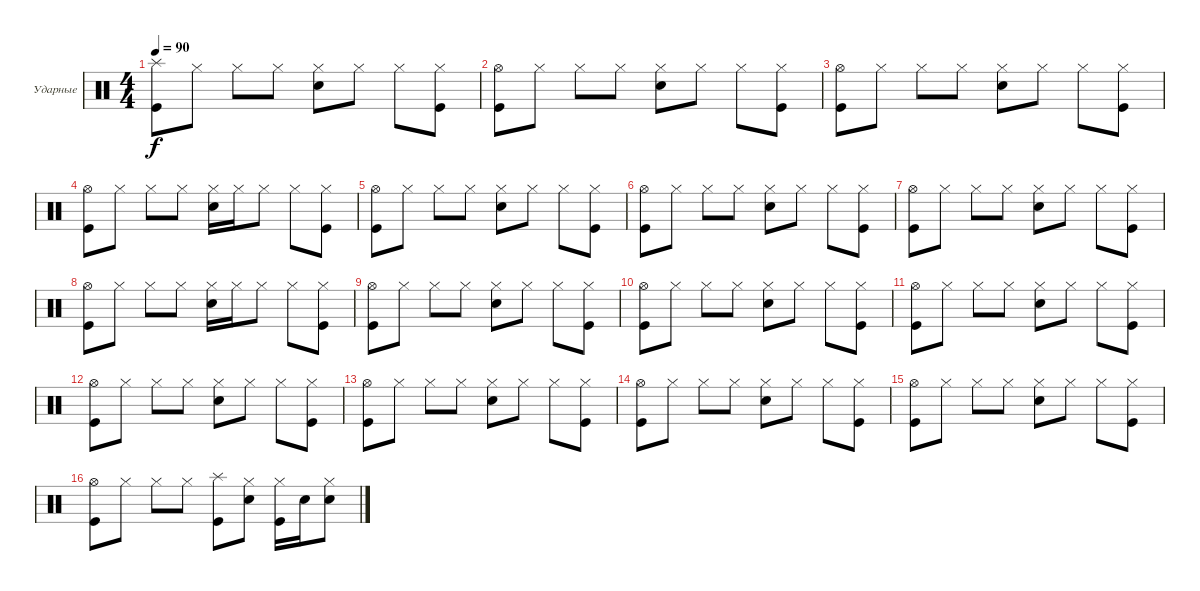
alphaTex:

\defaultSystemsLayout 4
\bracketExtendMode groupsimilarinstruments
\firstSystemTrackNameOrientation horizontal
\otherSystemsTrackNameOrientation horizontal
\track ("Drums" "Ударные") {instrument percussion}
\staff {score}
\articulation defaults
\ts (4 4)
\tempo 90
\clef neutral
\ks c
("Kick (hit)" "Splash (hit)").8{dy f} "Hi-Hat (closed)".8 "Hi-Hat (closed)".8 "Hi-Hat (closed)".8 ("Hi-Hat (closed)" "Snare (hit) 2").8 "Hi-Hat (closed)".8 "Hi-Hat (closed)".8 ("Hi-Hat (closed)" "Kick (hit)").8 |
("Hi-Hat (open)" "Kick (hit)").8 "Hi-Hat (closed)".8 "Hi-Hat (closed)".8 "Hi-Hat (closed)".8 ("Hi-Hat (closed)" "Snare (hit) 2").8 "Hi-Hat (closed)".8 "Hi-Hat (closed)".8 ("Hi-Hat (closed)" "Kick (hit)").8 |
("Hi-Hat (open)" "Kick (hit)").8 "Hi-Hat (closed)".8 "Hi-Hat (closed)".8 "Hi-Hat (closed)".8 ("Hi-Hat (closed)" "Snare (hit) 2").8 "Hi-Hat (closed)".8 "Hi-Hat (closed)".8 ("Hi-Hat (closed)" "Kick (hit)").8 |
("Hi-Hat (open)" "Kick (hit)").8 "Hi-Hat (closed)".8 "Hi-Hat (closed)".8 "Hi-Hat (closed)".8 ("Hi-Hat (closed)" "Snare (hit) 2").16 "Hi-Hat (closed)".16 "Hi-Hat (closed)".8 "Hi-Hat (closed)".8 ("Hi-Hat (closed)" "Kick (hit)").8 |
("Hi-Hat (open)" "Kick (hit)").8 "Hi-Hat (closed)".8 "Hi-Hat (closed)".8 "Hi-Hat (closed)".8 ("Hi-Hat (closed)" "Snare (hit) 2").8 "Hi-Hat (closed)".8 "Hi-Hat (closed)".8 ("Hi-Hat (closed)" "Kick (hit)").8 |
("Hi-Hat (open)" "Kick (hit)").8 "Hi-Hat (closed)".8 "Hi-Hat (closed)".8 "Hi-Hat (closed)".8 ("Hi-Hat (closed)" "Snare (hit) 2").8 "Hi-Hat (closed)".8 "Hi-Hat (closed)".8 ("Hi-Hat (closed)" "Kick (hit)").8 |
("Hi-Hat (open)" "Kick (hit)").8 "Hi-Hat (closed)".8 "Hi-Hat (closed)".8 "Hi-Hat (closed)".8 ("Hi-Hat (closed)" "Snare (hit) 2").8 "Hi-Hat (closed)".8 "Hi-Hat (closed)".8 ("Hi-Hat (closed)" "Kick (hit)").8 |
("Hi-Hat (open)" "Kick (hit)").8 "Hi-Hat (closed)".8 "Hi-Hat (closed)".8 "Hi-Hat (closed)".8 ("Hi-Hat (closed)" "Snare (hit) 2").16 "Hi-Hat (closed)".16 "Hi-Hat (closed)".8 "Hi-Hat (closed)".8 ("Hi-Hat (closed)" "Kick (hit)").8 |
("Hi-Hat (open)" "Kick (hit)").8 "Hi-Hat (closed)".8 "Hi-Hat (closed)".8 "Hi-Hat (closed)".8 ("Hi-Hat (closed)" "Snare (hit) 2").8 "Hi-Hat (closed)".8 "Hi-Hat (closed)".8 ("Hi-Hat (closed)" "Kick (hit)").8 |
("Hi-Hat (open)" "Kick (hit)").8 "Hi-Hat (closed)".8 "Hi-Hat (closed)".8 "Hi-Hat (closed)".8 ("Hi-Hat (closed)" "Snare (hit) 2").8 "Hi-Hat (closed)".8 "Hi-Hat (closed)".8 ("Hi-Hat (closed)" "Kick (hit)").8 |
("Hi-Hat (open)" "Kick (hit)").8 "Hi-Hat (closed)".8 "Hi-Hat (closed)".8 "Hi-Hat (closed)".8 ("Hi-Hat (closed)" "Snare (hit) 2").8 "Hi-Hat (closed)".8 "Hi-Hat (closed)".8 ("Hi-Hat (closed)" "Kick (hit)").8 |
("Hi-Hat (open)" "Kick (hit)").8 "Hi-Hat (closed)".8 "Hi-Hat (closed)".8 "Hi-Hat (closed)".8 ("Hi-Hat (closed)" "Snare (hit) 2").8 "Hi-Hat (closed)".8 "Hi-Hat (closed)".8 ("Hi-Hat (closed)" "Kick (hit)").8 |
("Hi-Hat (open)" "Kick (hit)").8 "Hi-Hat (closed)".8 "Hi-Hat (closed)".8 "Hi-Hat (closed)".8 ("Hi-Hat (closed)" "Snare (hit) 2").8 "Hi-Hat (closed)".8 "Hi-Hat (closed)".8 ("Hi-Hat (closed)" "Kick (hit)").8 |
("Hi-Hat (open)" "Kick (hit)").8 "Hi-Hat (closed)".8 "Hi-Hat (closed)".8 "Hi-Hat (closed)".8 ("Hi-Hat (closed)" "Snare (hit) 2").8 "Hi-Hat (closed)".8 "Hi-Hat (closed)".8 ("Hi-Hat (closed)" "Kick (hit)").8 |
("Hi-Hat (open)" "Kick (hit)").8 "Hi-Hat (closed)".8 "Hi-Hat (closed)".8 "Hi-Hat (closed)".8 ("Hi-Hat (closed)" "Snare (hit) 2").8 "Hi-Hat (closed)".8 "Hi-Hat (closed)".8 ("Hi-Hat (closed)" "Kick (hit)").8 |
("Hi-Hat (open)" "Kick (hit)").8 "Hi-Hat (closed)".8 "Hi-Hat (closed)".8 "Hi-Hat (closed)".8 ("Kick (hit)" "Splash (hit)").8 ("Hi-Hat (closed)" "Snare (hit) 2").8 ("Hi-Hat (closed)" "Kick (hit)").16 "Snare (hit) 2".16 ("Hi-Hat (closed)" "Snare (hit) 2").8
